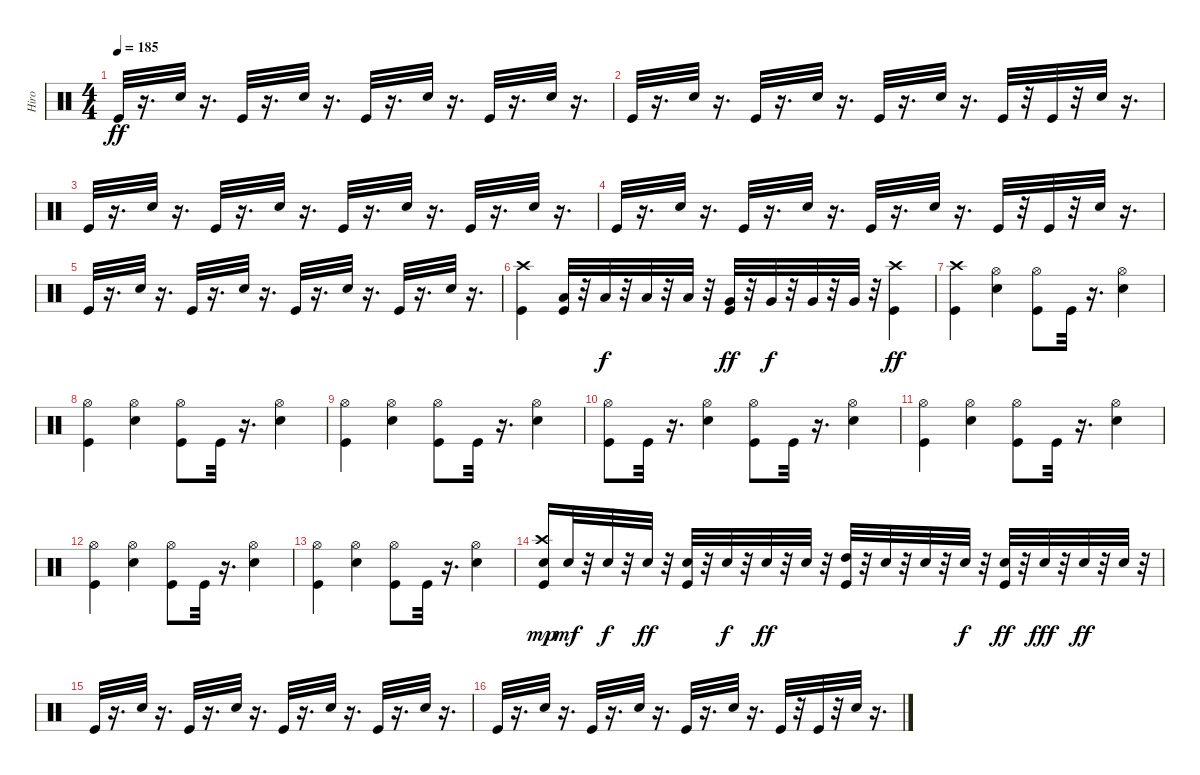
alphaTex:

\track ("Hiro" "Hiro") {instrument percussion}
\staff {score}
\articulation defaults
\ts (4 4)
\tempo 185
\clef neutral
\ks c "Kick (hit)".32{dy ff}
r.16{d} "Electric Snare (hit)".32 r.16{d} "Kick (hit)".32 r.16{d} "Electric Snare (hit)".32 r.16{d} "Kick (hit)".32 r.16{d} "Electric Snare (hit)".32 r.16{d} "Kick (hit)".32 r.16{d} "Electric Snare (hit)".32 r.16{d} |
"Kick (hit)".32 r.16{d} "Electric Snare (hit)".32 r.16{d} "Kick (hit)".32 r.16{d} "Electric Snare (hit)".32 r.16{d} "Kick (hit)".32 r.16{d} "Electric Snare (hit)".32 r.16{d} "Kick (hit)".32 r.32 "Kick (hit)".32 r.32 "Electric Snare (hit)".32 r.16{d} |
"Kick (hit)".32 r.16{d} "Electric Snare (hit)".32 r.16{d} "Kick (hit)".32 r.16{d} "Electric Snare (hit)".32 r.16{d} "Kick (hit)".32 r.16{d} "Electric Snare (hit)".32 r.16{d} "Kick (hit)".32 r.16{d} "Electric Snare (hit)".32 r.16{d} |
"Kick (hit)".32 r.16{d} "Electric Snare (hit)".32 r.16{d} "Kick (hit)".32 r.16{d} "Electric Snare (hit)".32 r.16{d} "Kick (hit)".32 r.16{d} "Electric Snare (hit)".32 r.16{d} "Kick (hit)".32 r.32 "Kick (hit)".32 r.32 "Electric Snare (hit)".32 r.16{d} |
"Kick (hit)".32 r.16{d} "Electric Snare (hit)".32 r.16{d} "Kick (hit)".32 r.16{d} "Electric Snare (hit)".32 r.16{d} "Kick (hit)".32 r.16{d} "Electric Snare (hit)".32 r.16{d} "Kick (hit)".32 r.16{d} "Electric Snare (hit)".32 r.16{d} |
("Crash high (hit)" "Kick (hit)").4 ("Kick (hit)" "Low Tom (hit)").32 r.32 "Low Tom (hit)".32{dy f} r.32 "Low Tom (hit)".32 r.32 "Low Tom (hit)".32 r.32 ("Kick (hit)" "Very Low Tom (hit)").32{dy ff} r.32 "Very Low Tom (hit)".32{dy f} r.32 "Very Low Tom (hit)".32 r.32 "Very Low Tom (hit)".32 r.32 ("Crash high (hit)" "Kick (hit)").4{dy ff} |
("Crash high (hit)" "Kick (hit)").4 ("Hi-Hat (open)" "Electric Snare (hit)").4 ("Hi-Hat (open)" "Kick (hit)").8 "Kick (hit)".32 r.16{d} ("Hi-Hat (open)" "Electric Snare (hit)").4 |
("Hi-Hat (open)" "Kick (hit)").4 ("Hi-Hat (open)" "Electric Snare (hit)").4 ("Hi-Hat (open)" "Kick (hit)").8 "Kick (hit)".32 r.16{d} ("Hi-Hat (open)" "Electric Snare (hit)").4 |
("Hi-Hat (open)" "Kick (hit)").4 ("Hi-Hat (open)" "Electric Snare (hit)").4 ("Hi-Hat (open)" "Kick (hit)").8 "Kick (hit)".32 r.16{d} ("Hi-Hat (open)" "Electric Snare (hit)").4 |
("Hi-Hat (open)" "Kick (hit)").8 "Kick (hit)".32 r.16{d} ("Hi-Hat (open)" "Electric Snare (hit)").4 ("Hi-Hat (open)" "Kick (hit)").8 "Kick (hit)".32 r.16{d} ("Hi-Hat (open)" "Electric Snare (hit)").4 |
("Hi-Hat (open)" "Kick (hit)").4 ("Hi-Hat (open)" "Electric Snare (hit)").4 ("Hi-Hat (open)" "Kick (hit)").8 "Kick (hit)".32 r.16{d} ("Hi-Hat (open)" "Electric Snare (hit)").4 |
("Hi-Hat (open)" "Kick (hit)").4 ("Hi-Hat (open)" "Electric Snare (hit)").4 ("Hi-Hat (open)" "Kick (hit)").8 "Kick (hit)".32 r.16{d} ("Hi-Hat (open)" "Electric Snare (hit)").4 |
("Hi-Hat (open)" "Kick (hit)").4 ("Hi-Hat (open)" "Electric Snare (hit)").4 ("Hi-Hat (open)" "Kick (hit)").8 "Kick (hit)".32 r.16{d} ("Hi-Hat (open)" "Electric Snare (hit)").4 |
("Crash high (hit)" "Kick (hit)" "Snare (hit) 2").16{dy mp} "Electric Snare (hit)".32{dy mf} r.32 "Electric Snare (hit)".32{dy f} r.32 "Electric Snare (hit)".32{dy ff} r.32 ("Electric Snare (hit)" "Kick (hit)").32 r.32 "Electric Snare (hit)".32{dy f} r.32 "Electric Snare (hit)".32{dy ff} r.32 "Electric Snare (hit)".32 r.32 ("High Tom (hit)" "Kick (hit)").32 r.32 "Electric Snare (hit)".32 r.32 "Electric Snare (hit)".32 r.32 "Electric Snare (hit)".32{dy f} r.32 ("Electric Snare (hit)" "Kick (hit)").32{dy ff} r.32 "Electric Snare (hit)".32{dy fff} r.32 "Electric Snare (hit)".32{dy ff} r.32 "Electric Snare (hit)".32 r.32 |
"Kick (hit)".32 r.16{d} "Electric Snare (hit)".32 r.16{d} "Kick (hit)".32 r.16{d} "Electric Snare (hit)".32 r.16{d} "Kick (hit)".32 r.16{d} "Electric Snare (hit)".32 r.16{d} "Kick (hit)".32 r.16{d} "Electric Snare (hit)".32 r.16{d} |
"Kick (hit)".32 r.16{d} "Electric Snare (hit)".32 r.16{d} "Kick (hit)".32 r.16{d} "Electric Snare (hit)".32 r.16{d} "Kick (hit)".32 r.16{d} "Electric Snare (hit)".32 r.16{d} "Kick (hit)".32 r.32 "Kick (hit)".32 r.32 "Electric Snare (hit)".32 r.16{d}
